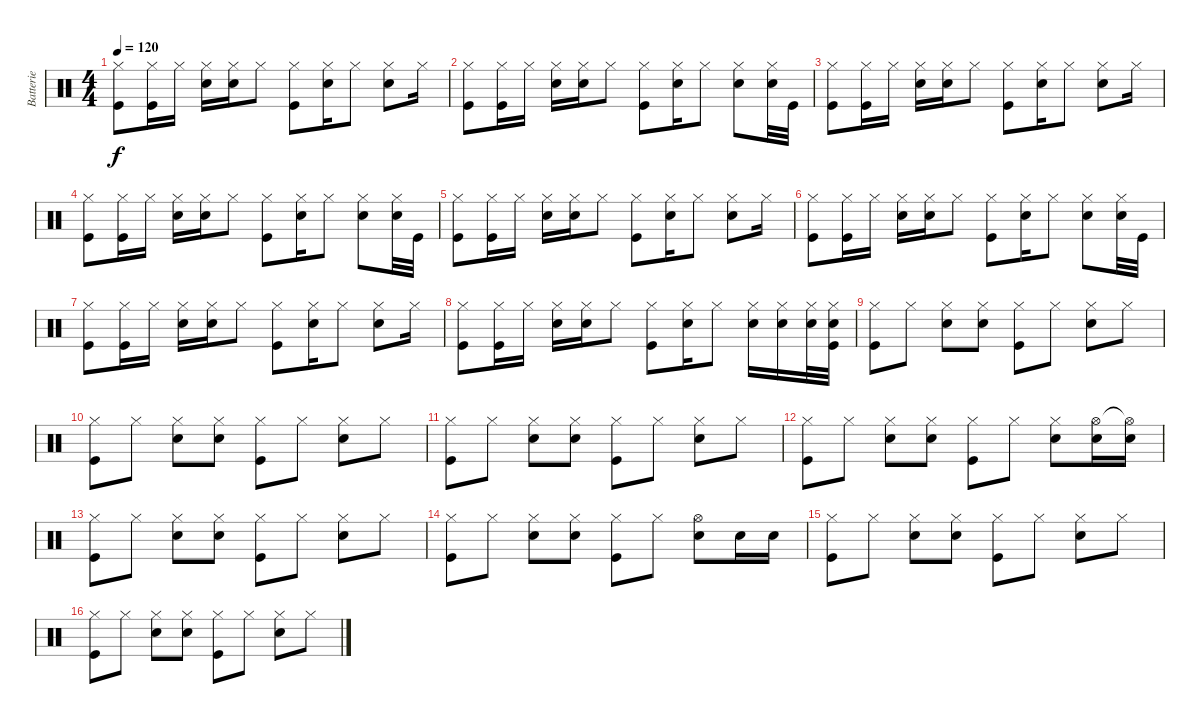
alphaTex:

\track ("Batterie" "Batterie") {instrument percussion}
\staff {score}
\articulation defaults
\ts (4 4)
\tempo 120
\clef neutral
\ks c
("Hi-Hat (closed)" "Kick (hit)").8{dy f} ("Hi-Hat (closed)" "Kick (hit)").16 "Hi-Hat (closed)".16 ("Hi-Hat (closed)" "Snare (hit) 2").16 ("Hi-Hat (closed)" "Snare (hit) 2").16 "Hi-Hat (closed)".8 ("Hi-Hat (closed)" "Kick (hit)").8 ("Hi-Hat (closed)" "Snare (hit) 2").16 "Hi-Hat (closed)".8 ("Hi-Hat (closed)" "Snare (hit) 2").8 "Hi-Hat (closed)".16 |
("Hi-Hat (closed)" "Kick (hit)").8 ("Hi-Hat (closed)" "Kick (hit)").16 "Hi-Hat (closed)".16 ("Hi-Hat (closed)" "Snare (hit) 2").16 ("Hi-Hat (closed)" "Snare (hit) 2").16 "Hi-Hat (closed)".8 ("Hi-Hat (closed)" "Kick (hit)").8 ("Hi-Hat (closed)" "Snare (hit) 2").16 "Hi-Hat (closed)".8 ("Hi-Hat (closed)" "Snare (hit) 2").8 ("Hi-Hat (closed)" "Snare (hit) 2").32 "Kick (hit)".32 |
("Hi-Hat (closed)" "Kick (hit)").8 ("Hi-Hat (closed)" "Kick (hit)").16 "Hi-Hat (closed)".16 ("Hi-Hat (closed)" "Snare (hit) 2").16 ("Hi-Hat (closed)" "Snare (hit) 2").16 "Hi-Hat (closed)".8 ("Hi-Hat (closed)" "Kick (hit)").8 ("Hi-Hat (closed)" "Snare (hit) 2").16 "Hi-Hat (closed)".8 ("Hi-Hat (closed)" "Snare (hit) 2").8 "Hi-Hat (closed)".16 |
("Hi-Hat (closed)" "Kick (hit)").8 ("Hi-Hat (closed)" "Kick (hit)").16 "Hi-Hat (closed)".16 ("Hi-Hat (closed)" "Snare (hit) 2").16 ("Hi-Hat (closed)" "Snare (hit) 2").16 "Hi-Hat (closed)".8 ("Hi-Hat (closed)" "Kick (hit)").8 ("Hi-Hat (closed)" "Snare (hit) 2").16 "Hi-Hat (closed)".8 ("Hi-Hat (closed)" "Snare (hit) 2").8 ("Hi-Hat (closed)" "Snare (hit) 2").32 "Kick (hit)".32 |
("Hi-Hat (closed)" "Kick (hit)").8 ("Hi-Hat (closed)" "Kick (hit)").16 "Hi-Hat (closed)".16 ("Hi-Hat (closed)" "Snare (hit) 2").16 ("Hi-Hat (closed)" "Snare (hit) 2").16 "Hi-Hat (closed)".8 ("Hi-Hat (closed)" "Kick (hit)").8 ("Hi-Hat (closed)" "Snare (hit) 2").16 "Hi-Hat (closed)".8 ("Hi-Hat (closed)" "Snare (hit) 2").8 "Hi-Hat (closed)".16 |
("Hi-Hat (closed)" "Kick (hit)").8 ("Hi-Hat (closed)" "Kick (hit)").16 "Hi-Hat (closed)".16 ("Hi-Hat (closed)" "Snare (hit) 2").16 ("Hi-Hat (closed)" "Snare (hit) 2").16 "Hi-Hat (closed)".8 ("Hi-Hat (closed)" "Kick (hit)").8 ("Hi-Hat (closed)" "Snare (hit) 2").16 "Hi-Hat (closed)".8 ("Hi-Hat (closed)" "Snare (hit) 2").8 ("Hi-Hat (closed)" "Snare (hit) 2").32 "Kick (hit)".32 |
("Hi-Hat (closed)" "Kick (hit)").8 ("Hi-Hat (closed)" "Kick (hit)").16 "Hi-Hat (closed)".16 ("Hi-Hat (closed)" "Snare (hit) 2").16 ("Hi-Hat (closed)" "Snare (hit) 2").16 "Hi-Hat (closed)".8 ("Hi-Hat (closed)" "Kick (hit)").8 ("Hi-Hat (closed)" "Snare (hit) 2").16 "Hi-Hat (closed)".8 ("Hi-Hat (closed)" "Snare (hit) 2").8 "Hi-Hat (closed)".16 |
("Hi-Hat (closed)" "Kick (hit)").8 ("Hi-Hat (closed)" "Kick (hit)").16 "Hi-Hat (closed)".16 ("Hi-Hat (closed)" "Snare (hit) 2").16 ("Hi-Hat (closed)" "Snare (hit) 2").16 "Hi-Hat (closed)".8 ("Hi-Hat (closed)" "Kick (hit)").8 ("Hi-Hat (closed)" "Snare (hit) 2").16 "Hi-Hat (closed)".8 ("Hi-Hat (closed)" "Snare (hit) 2").16 ("Snare (hit) 2" "Hi-Hat (closed)").16 ("Hi-Hat (closed)" "Snare (hit) 2").32 ("Kick (hit)" "Snare (hit) 2" "Hi-Hat (closed)").32 |
("Hi-Hat (closed)" "Kick (hit)").8 "Hi-Hat (closed)".8 ("Hi-Hat (closed)" "Snare (hit) 2").8 ("Hi-Hat (closed)" "Snare (hit) 2").8 ("Hi-Hat (closed)" "Kick (hit)").8 "Hi-Hat (closed)".8 ("Hi-Hat (closed)" "Snare (hit) 2").8 "Hi-Hat (closed)".8 |
("Hi-Hat (closed)" "Kick (hit)").8 "Hi-Hat (closed)".8 ("Hi-Hat (closed)" "Snare (hit) 2").8 ("Hi-Hat (closed)" "Snare (hit) 2").8 ("Hi-Hat (closed)" "Kick (hit)").8 "Hi-Hat (closed)".8 ("Hi-Hat (closed)" "Snare (hit) 2").8 "Hi-Hat (closed)".8 |
("Hi-Hat (closed)" "Kick (hit)").8 "Hi-Hat (closed)".8 ("Hi-Hat (closed)" "Snare (hit) 2").8 ("Hi-Hat (closed)" "Snare (hit) 2").8 ("Hi-Hat (closed)" "Kick (hit)").8 "Hi-Hat (closed)".8 ("Hi-Hat (closed)" "Snare (hit) 2").8 "Hi-Hat (closed)".8 |
("Hi-Hat (closed)" "Kick (hit)").8 "Hi-Hat (closed)".8 ("Hi-Hat (closed)" "Snare (hit) 2").8 ("Hi-Hat (closed)" "Snare (hit) 2").8 ("Hi-Hat (closed)" "Kick (hit)").8 "Hi-Hat (closed)".8 ("Hi-Hat (closed)" "Snare (hit) 2").8 ("Snare (hit) 2" "Hi-Hat (open)").16 ("Snare (hit) 2" "Hi-Hat (open)"{t}).16 |
("Hi-Hat (closed)" "Kick (hit)").8 "Hi-Hat (closed)".8 ("Hi-Hat (closed)" "Snare (hit) 2").8 ("Hi-Hat (closed)" "Snare (hit) 2").8 ("Hi-Hat (closed)" "Kick (hit)").8 "Hi-Hat (closed)".8 ("Hi-Hat (closed)" "Snare (hit) 2").8 "Hi-Hat (closed)".8 |
("Hi-Hat (closed)" "Kick (hit)").8 "Hi-Hat (closed)".8 ("Hi-Hat (closed)" "Snare (hit) 2").8 ("Hi-Hat (closed)" "Snare (hit) 2").8 ("Hi-Hat (closed)" "Kick (hit)").8 "Hi-Hat (closed)".8 ("Hi-Hat (open)" "Snare (hit) 2").8 "Snare (hit) 2".16 "Snare (hit) 2".16 |
("Hi-Hat (closed)" "Kick (hit)").8 "Hi-Hat (closed)".8 ("Hi-Hat (closed)" "Snare (hit) 2").8 ("Hi-Hat (closed)" "Snare (hit) 2").8 ("Hi-Hat (closed)" "Kick (hit)").8 "Hi-Hat (closed)".8 ("Hi-Hat (closed)" "Snare (hit) 2").8 "Hi-Hat (closed)".8 |
("Hi-Hat (closed)" "Kick (hit)").8 "Hi-Hat (closed)".8 ("Hi-Hat (closed)" "Snare (hit) 2").8 ("Hi-Hat (closed)" "Snare (hit) 2").8 ("Hi-Hat (closed)" "Kick (hit)").8 "Hi-Hat (closed)".8 ("Hi-Hat (closed)" "Snare (hit) 2").8 "Hi-Hat (closed)".8
